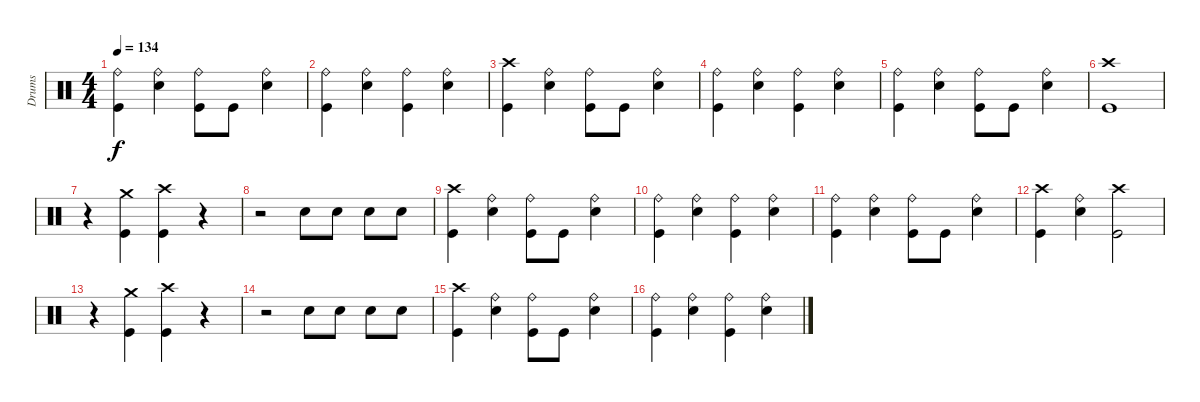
\track ("Drums" "Drums") {instrument percussion}
\staff {score}
\articulation defaults
\ts (4 4)
\tempo 134
\clef neutral
\ks c
("Ride (bell)" "Kick (hit)").4{dy f} ("Ride (bell)" "Snare (hit) 2").4 ("Ride (bell)" "Kick (hit)").8 "Kick (hit)".8 ("Ride (bell)" "Snare (hit) 2").4 |
("Ride (bell)" "Kick (hit)").4 ("Ride (bell)" "Snare (hit) 2").4 ("Ride (bell)" "Kick (hit)").4 ("Ride (bell)" "Snare (hit) 2").4 |
("Crash high (hit)" "Kick (hit)").4 ("Ride (bell)" "Snare (hit) 2").4 ("Ride (bell)" "Kick (hit)").8 "Kick (hit)".8 ("Ride (bell)" "Snare (hit) 2").4 |
("Ride (bell)" "Kick (hit)").4 ("Ride (bell)" "Snare (hit) 2").4 ("Ride (bell)" "Kick (hit)").4 ("Ride (bell)" "Snare (hit) 2").4 |
("Ride (bell)" "Kick (hit)").4 ("Ride (bell)" "Snare (hit) 2").4 ("Ride (bell)" "Kick (hit)").8 "Kick (hit)".8 ("Ride (bell)" "Snare (hit) 2").4 |
("Crash high (hit)" "Kick (hit)").1 |
r.4 ("Crash medium (hit)" "Kick (hit)").4 ("Crash high (hit)" "Kick (hit)").4 r.4 |
r.2 "Snare (hit) 2".8 "Snare (hit) 2".8 "Snare (hit) 2".8 "Snare (hit) 2".8 |
("Crash high (hit)" "Kick (hit)").4 ("Ride (bell)" "Snare (hit) 2").4 ("Ride (bell)" "Kick (hit)").8 "Kick (hit)".8 ("Ride (bell)" "Snare (hit) 2").4 |
("Ride (bell)" "Kick (hit)").4 ("Ride (bell)" "Snare (hit) 2").4 ("Ride (bell)" "Kick (hit)").4 ("Ride (bell)" "Snare (hit) 2").4 |
("Ride (bell)" "Kick (hit)").4 ("Ride (bell)" "Snare (hit) 2").4 ("Ride (bell)" "Kick (hit)").8 "Kick (hit)".8 ("Ride (bell)" "Snare (hit) 2").4 |
("Crash high (hit)" "Kick (hit)").4 ("Ride (bell)" "Snare (hit) 2").4 ("Crash high (hit)" "Kick (hit)").2 |
r.4 ("Crash medium (hit)" "Kick (hit)").4 ("Crash high (hit)" "Kick (hit)").4 r.4 |
r.2 "Snare (hit) 2".8 "Snare (hit) 2".8 "Snare (hit) 2".8 "Snare (hit) 2".8 |
("Crash high (hit)" "Kick (hit)").4 ("Ride (bell)" "Snare (hit) 2").4 ("Ride (bell)" "Kick (hit)").8 "Kick (hit)".8 ("Ride (bell)" "Snare (hit) 2").4 |
("Ride (bell)" "Kick (hit)").4 ("Ride (bell)" "Snare (hit) 2").4 ("Ride (bell)" "Kick (hit)").4 ("Ride (bell)" "Snare (hit) 2").4
